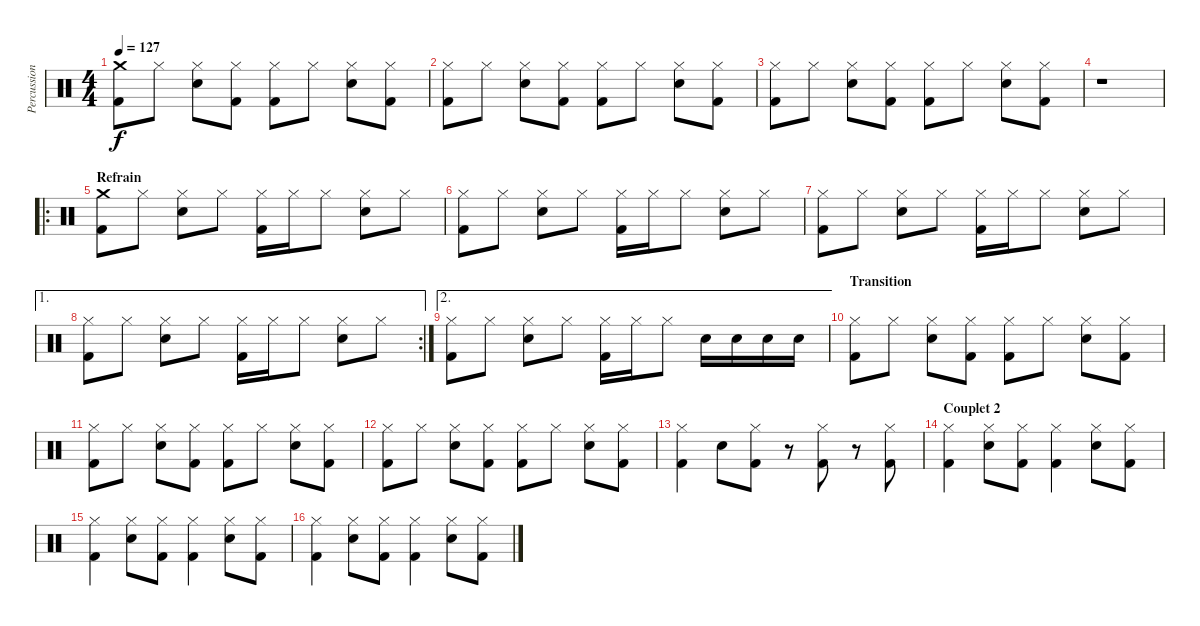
\track ("Percussions" "Percussion") {instrument percussion}
\staff {score}
\articulation defaults
\ts (4 4)
\tempo 127
\clef neutral
\ks c
("Crash medium (hit)" "Kick (hit) 2").8{dy f} "Hi-Hat (closed)".8 ("Hi-Hat (closed)" "Electric Snare (hit)").8 ("Hi-Hat (closed)" "Kick (hit) 2").8 ("Hi-Hat (closed)" "Kick (hit) 2").8 "Hi-Hat (closed)".8 ("Hi-Hat (closed)" "Electric Snare (hit)").8 ("Hi-Hat (closed)" "Kick (hit) 2").8 |
("Hi-Hat (closed)" "Kick (hit) 2").8 "Hi-Hat (closed)".8 ("Hi-Hat (closed)" "Electric Snare (hit)").8 ("Hi-Hat (closed)" "Kick (hit) 2").8 ("Hi-Hat (closed)" "Kick (hit) 2").8 "Hi-Hat (closed)".8 ("Hi-Hat (closed)" "Electric Snare (hit)").8 ("Hi-Hat (closed)" "Kick (hit) 2").8 |
("Hi-Hat (closed)" "Kick (hit) 2").8 "Hi-Hat (closed)".8 ("Hi-Hat (closed)" "Electric Snare (hit)").8 ("Hi-Hat (closed)" "Kick (hit) 2").8 ("Hi-Hat (closed)" "Kick (hit) 2").8 "Hi-Hat (closed)".8 ("Hi-Hat (closed)" "Electric Snare (hit)").8 ("Hi-Hat (closed)" "Kick (hit) 2").8 |
r.1 |
\ro
\section ("" "Refrain")
("Crash medium (hit)" "Kick (hit) 2").8 "Hi-Hat (closed)".8 ("Hi-Hat (closed)" "Electric Snare (hit)").8 "Hi-Hat (closed)".8 ("Hi-Hat (closed)" "Kick (hit) 2").16 "Hi-Hat (closed)".16 "Hi-Hat (closed)".8 ("Hi-Hat (closed)" "Electric Snare (hit)").8 "Hi-Hat (closed)".8 |
("Hi-Hat (closed)" "Kick (hit) 2").8 "Hi-Hat (closed)".8 ("Hi-Hat (closed)" "Electric Snare (hit)").8 "Hi-Hat (closed)".8 ("Hi-Hat (closed)" "Kick (hit) 2").16 "Hi-Hat (closed)".16 "Hi-Hat (closed)".8 ("Hi-Hat (closed)" "Electric Snare (hit)").8 "Hi-Hat (closed)".8 |
("Hi-Hat (closed)" "Kick (hit) 2").8 "Hi-Hat (closed)".8 ("Hi-Hat (closed)" "Electric Snare (hit)").8 "Hi-Hat (closed)".8 ("Hi-Hat (closed)" "Kick (hit) 2").16 "Hi-Hat (closed)".16 "Hi-Hat (closed)".8 ("Hi-Hat (closed)" "Electric Snare (hit)").8 "Hi-Hat (closed)".8 |
\ae 1
\rc 2
("Hi-Hat (closed)" "Kick (hit) 2").8 "Hi-Hat (closed)".8 ("Hi-Hat (closed)" "Electric Snare (hit)").8 "Hi-Hat (closed)".8 ("Hi-Hat (closed)" "Kick (hit) 2").16 "Hi-Hat (closed)".16 "Hi-Hat (closed)".8 ("Hi-Hat (closed)" "Electric Snare (hit)").8 "Hi-Hat (closed)".8 |
\ae 2
("Hi-Hat (closed)" "Kick (hit) 2").8 "Hi-Hat (closed)".8 ("Hi-Hat (closed)" "Electric Snare (hit)").8 "Hi-Hat (closed)".8 ("Hi-Hat (closed)" "Kick (hit) 2").16 "Hi-Hat (closed)".16 "Hi-Hat (closed)".8 "Electric Snare (hit)".16 "Electric Snare (hit)".16 "Electric Snare (hit)".16 "Electric Snare (hit)".16 |
\section ("" "Transition")
("Hi-Hat (closed)" "Kick (hit) 2").8 "Hi-Hat (closed)".8 ("Hi-Hat (closed)" "Electric Snare (hit)").8 ("Hi-Hat (closed)" "Kick (hit) 2").8 ("Hi-Hat (closed)" "Kick (hit) 2").8 "Hi-Hat (closed)".8 ("Hi-Hat (closed)" "Electric Snare (hit)").8 ("Hi-Hat (closed)" "Kick (hit) 2").8 |
("Hi-Hat (closed)" "Kick (hit) 2").8 "Hi-Hat (closed)".8 ("Hi-Hat (closed)" "Electric Snare (hit)").8 ("Hi-Hat (closed)" "Kick (hit) 2").8 ("Hi-Hat (closed)" "Kick (hit) 2").8 "Hi-Hat (closed)".8 ("Hi-Hat (closed)" "Electric Snare (hit)").8 ("Hi-Hat (closed)" "Kick (hit) 2").8 |
("Hi-Hat (closed)" "Kick (hit) 2").8 "Hi-Hat (closed)".8 ("Hi-Hat (closed)" "Electric Snare (hit)").8 ("Hi-Hat (closed)" "Kick (hit) 2").8 ("Hi-Hat (closed)" "Kick (hit) 2").8 "Hi-Hat (closed)".8 ("Hi-Hat (closed)" "Electric Snare (hit)").8 ("Hi-Hat (closed)" "Kick (hit) 2").8 |
("Hi-Hat (closed)" "Kick (hit) 2").4 "Electric Snare (hit)".8 ("Hi-Hat (closed)" "Kick (hit) 2").8 r.8 ("Hi-Hat (closed)" "Kick (hit) 2").8 r.8 ("Hi-Hat (closed)" "Kick (hit) 2").8 |
\section ("" "Couplet 2")
("Hi-Hat (closed)" "Kick (hit) 2").4 ("Hi-Hat (closed)" "Electric Snare (hit)").8 ("Hi-Hat (closed)" "Kick (hit) 2").8 ("Hi-Hat (closed)" "Kick (hit) 2").4 ("Hi-Hat (closed)" "Electric Snare (hit)").8 ("Hi-Hat (closed)" "Kick (hit) 2").8 |
("Hi-Hat (closed)" "Kick (hit) 2").4 ("Hi-Hat (closed)" "Electric Snare (hit)").8 ("Hi-Hat (closed)" "Kick (hit) 2").8 ("Hi-Hat (closed)" "Kick (hit) 2").4 ("Hi-Hat (closed)" "Electric Snare (hit)").8 ("Hi-Hat (closed)" "Kick (hit) 2").8 |
("Hi-Hat (closed)" "Kick (hit) 2").4 ("Hi-Hat (closed)" "Electric Snare (hit)").8 ("Hi-Hat (closed)" "Kick (hit) 2").8 ("Hi-Hat (closed)" "Kick (hit) 2").4 ("Hi-Hat (closed)" "Electric Snare (hit)").8 ("Hi-Hat (closed)" "Kick (hit) 2").8
